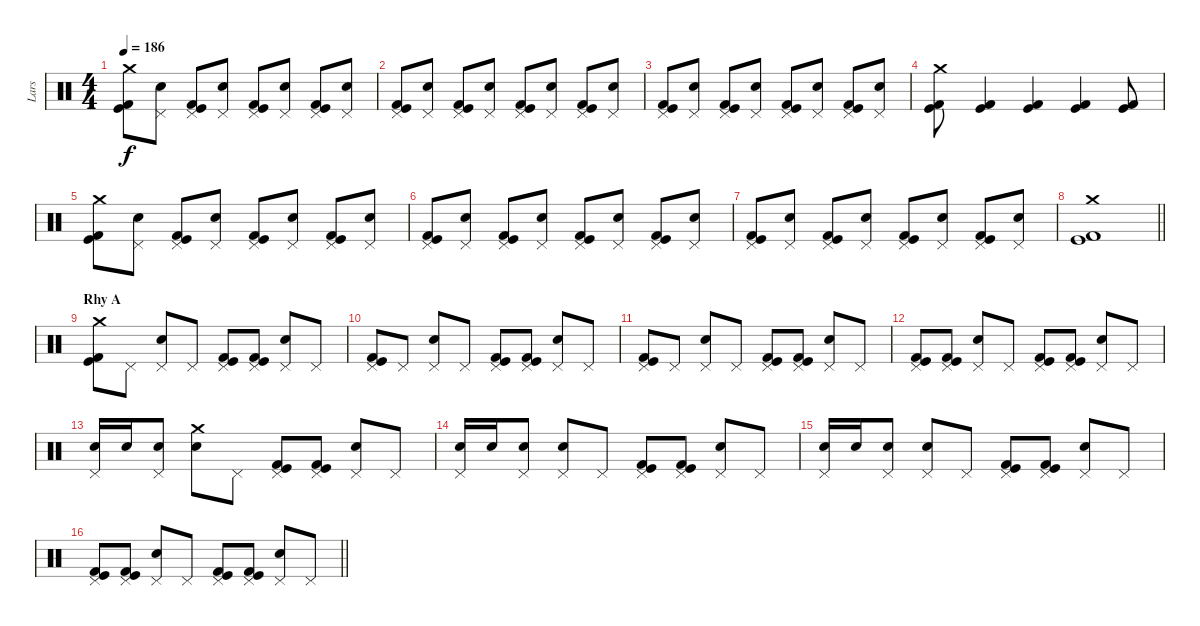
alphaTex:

\track ("Lars" "Lars") {instrument percussion}
\staff {score}
\articulation defaults
\ts (4 4)
\tempo 186
\clef neutral
\ks c
("Crash medium (hit)" "Kick (hit)" "Kick (hit) 2").8{dy f} ("Pedal Hi-Hat (hit)" "Electric Snare (hit)").8 ("Pedal Hi-Hat (hit)" "Kick (hit)" "Kick (hit) 2").8 ("Pedal Hi-Hat (hit)" "Electric Snare (hit)").8 ("Pedal Hi-Hat (hit)" "Kick (hit)" "Kick (hit) 2").8 ("Pedal Hi-Hat (hit)" "Electric Snare (hit)").8 ("Pedal Hi-Hat (hit)" "Kick (hit)" "Kick (hit) 2").8 ("Pedal Hi-Hat (hit)" "Electric Snare (hit)").8 |
("Pedal Hi-Hat (hit)" "Kick (hit)" "Kick (hit) 2").8 ("Pedal Hi-Hat (hit)" "Electric Snare (hit)").8 ("Pedal Hi-Hat (hit)" "Kick (hit)" "Kick (hit) 2").8 ("Pedal Hi-Hat (hit)" "Electric Snare (hit)").8 ("Pedal Hi-Hat (hit)" "Kick (hit)" "Kick (hit) 2").8 ("Pedal Hi-Hat (hit)" "Electric Snare (hit)").8 ("Pedal Hi-Hat (hit)" "Kick (hit)" "Kick (hit) 2").8 ("Pedal Hi-Hat (hit)" "Electric Snare (hit)").8 |
("Pedal Hi-Hat (hit)" "Kick (hit)" "Kick (hit) 2").8 ("Pedal Hi-Hat (hit)" "Electric Snare (hit)").8 ("Pedal Hi-Hat (hit)" "Kick (hit)" "Kick (hit) 2").8 ("Pedal Hi-Hat (hit)" "Electric Snare (hit)").8 ("Pedal Hi-Hat (hit)" "Kick (hit)" "Kick (hit) 2").8 ("Pedal Hi-Hat (hit)" "Electric Snare (hit)").8 ("Pedal Hi-Hat (hit)" "Kick (hit)" "Kick (hit) 2").8 ("Pedal Hi-Hat (hit)" "Electric Snare (hit)").8 |
("Crash medium (hit)" "Kick (hit)" "Kick (hit) 2").8 ("Kick (hit)" "Kick (hit) 2").4 ("Kick (hit)" "Kick (hit) 2").4 ("Kick (hit)" "Kick (hit) 2").4 ("Kick (hit)" "Kick (hit) 2").8 |
("Crash medium (hit)" "Kick (hit)" "Kick (hit) 2").8 ("Pedal Hi-Hat (hit)" "Electric Snare (hit)").8 ("Pedal Hi-Hat (hit)" "Kick (hit)" "Kick (hit) 2").8 ("Pedal Hi-Hat (hit)" "Electric Snare (hit)").8 ("Pedal Hi-Hat (hit)" "Kick (hit)" "Kick (hit) 2").8 ("Pedal Hi-Hat (hit)" "Electric Snare (hit)").8 ("Pedal Hi-Hat (hit)" "Kick (hit)" "Kick (hit) 2").8 ("Pedal Hi-Hat (hit)" "Electric Snare (hit)").8 |
("Pedal Hi-Hat (hit)" "Kick (hit)" "Kick (hit) 2").8 ("Pedal Hi-Hat (hit)" "Electric Snare (hit)").8 ("Pedal Hi-Hat (hit)" "Kick (hit)" "Kick (hit) 2").8 ("Pedal Hi-Hat (hit)" "Electric Snare (hit)").8 ("Pedal Hi-Hat (hit)" "Kick (hit)" "Kick (hit) 2").8 ("Pedal Hi-Hat (hit)" "Electric Snare (hit)").8 ("Pedal Hi-Hat (hit)" "Kick (hit)" "Kick (hit) 2").8 ("Pedal Hi-Hat (hit)" "Electric Snare (hit)").8 |
("Pedal Hi-Hat (hit)" "Kick (hit)" "Kick (hit) 2").8 ("Pedal Hi-Hat (hit)" "Electric Snare (hit)").8 ("Pedal Hi-Hat (hit)" "Kick (hit)" "Kick (hit) 2").8 ("Pedal Hi-Hat (hit)" "Electric Snare (hit)").8 ("Pedal Hi-Hat (hit)" "Kick (hit)" "Kick (hit) 2").8 ("Pedal Hi-Hat (hit)" "Electric Snare (hit)").8 ("Pedal Hi-Hat (hit)" "Kick (hit)" "Kick (hit) 2").8 ("Pedal Hi-Hat (hit)" "Electric Snare (hit)").8 |
\barLineRight lightlight
("Crash medium (hit)" "Kick (hit)" "Kick (hit) 2").1 |
\section ("" "Rhy A")
("Crash medium (hit)" "Kick (hit)" "Kick (hit) 2").8 "Pedal Hi-Hat (hit)".8 ("Pedal Hi-Hat (hit)" "Electric Snare (hit)").8 "Pedal Hi-Hat (hit)".8 ("Pedal Hi-Hat (hit)" "Kick (hit)" "Kick (hit) 2").8 ("Pedal Hi-Hat (hit)" "Kick (hit)" "Kick (hit) 2").8 ("Pedal Hi-Hat (hit)" "Electric Snare (hit)").8 "Pedal Hi-Hat (hit)".8 |
("Pedal Hi-Hat (hit)" "Kick (hit)" "Kick (hit) 2").8 "Pedal Hi-Hat (hit)".8 ("Pedal Hi-Hat (hit)" "Electric Snare (hit)").8 "Pedal Hi-Hat (hit)".8 ("Pedal Hi-Hat (hit)" "Kick (hit)" "Kick (hit) 2").8 ("Pedal Hi-Hat (hit)" "Kick (hit)" "Kick (hit) 2").8 ("Pedal Hi-Hat (hit)" "Electric Snare (hit)").8 "Pedal Hi-Hat (hit)".8 |
("Pedal Hi-Hat (hit)" "Kick (hit)" "Kick (hit) 2").8 "Pedal Hi-Hat (hit)".8 ("Pedal Hi-Hat (hit)" "Electric Snare (hit)").8 "Pedal Hi-Hat (hit)".8 ("Pedal Hi-Hat (hit)" "Kick (hit)" "Kick (hit) 2").8 ("Pedal Hi-Hat (hit)" "Kick (hit)" "Kick (hit) 2").8 ("Pedal Hi-Hat (hit)" "Electric Snare (hit)").8 "Pedal Hi-Hat (hit)".8 |
("Pedal Hi-Hat (hit)" "Kick (hit)" "Kick (hit) 2").8 ("Pedal Hi-Hat (hit)" "Kick (hit)" "Kick (hit) 2").8 ("Pedal Hi-Hat (hit)" "Electric Snare (hit)").8 "Pedal Hi-Hat (hit)".8 ("Pedal Hi-Hat (hit)" "Kick (hit)" "Kick (hit) 2").8 ("Pedal Hi-Hat (hit)" "Kick (hit)" "Kick (hit) 2").8 ("Pedal Hi-Hat (hit)" "Electric Snare (hit)").8 "Pedal Hi-Hat (hit)".8 |
("Pedal Hi-Hat (hit)" "Electric Snare (hit)").16 "Electric Snare (hit)".16 ("Pedal Hi-Hat (hit)" "Electric Snare (hit)").8 ("Crash medium (hit)" "Electric Snare (hit)").8 "Pedal Hi-Hat (hit)".8 ("Pedal Hi-Hat (hit)" "Kick (hit)" "Kick (hit) 2").8 ("Pedal Hi-Hat (hit)" "Kick (hit)" "Kick (hit) 2").8 ("Pedal Hi-Hat (hit)" "Electric Snare (hit)").8 "Pedal Hi-Hat (hit)".8 |
("Pedal Hi-Hat (hit)" "Electric Snare (hit)").16 "Electric Snare (hit)".16 ("Pedal Hi-Hat (hit)" "Electric Snare (hit)").8 ("Pedal Hi-Hat (hit)" "Electric Snare (hit)").8 "Pedal Hi-Hat (hit)".8 ("Pedal Hi-Hat (hit)" "Kick (hit)" "Kick (hit) 2").8 ("Pedal Hi-Hat (hit)" "Kick (hit)" "Kick (hit) 2").8 ("Pedal Hi-Hat (hit)" "Electric Snare (hit)").8 "Pedal Hi-Hat (hit)".8 |
("Pedal Hi-Hat (hit)" "Electric Snare (hit)").16 "Electric Snare (hit)".16 ("Pedal Hi-Hat (hit)" "Electric Snare (hit)").8 ("Pedal Hi-Hat (hit)" "Electric Snare (hit)").8 "Pedal Hi-Hat (hit)".8 ("Pedal Hi-Hat (hit)" "Kick (hit)" "Kick (hit) 2").8 ("Pedal Hi-Hat (hit)" "Kick (hit)" "Kick (hit) 2").8 ("Pedal Hi-Hat (hit)" "Electric Snare (hit)").8 "Pedal Hi-Hat (hit)".8 |
\barLineRight lightlight
("Pedal Hi-Hat (hit)" "Kick (hit)" "Kick (hit) 2").8 ("Pedal Hi-Hat (hit)" "Kick (hit)" "Kick (hit) 2").8 ("Pedal Hi-Hat (hit)" "Electric Snare (hit)").8 "Pedal Hi-Hat (hit)".8 ("Pedal Hi-Hat (hit)" "Kick (hit)" "Kick (hit) 2").8 ("Pedal Hi-Hat (hit)" "Kick (hit)" "Kick (hit) 2").8 ("Pedal Hi-Hat (hit)" "Electric Snare (hit)").8 "Pedal Hi-Hat (hit)".8
